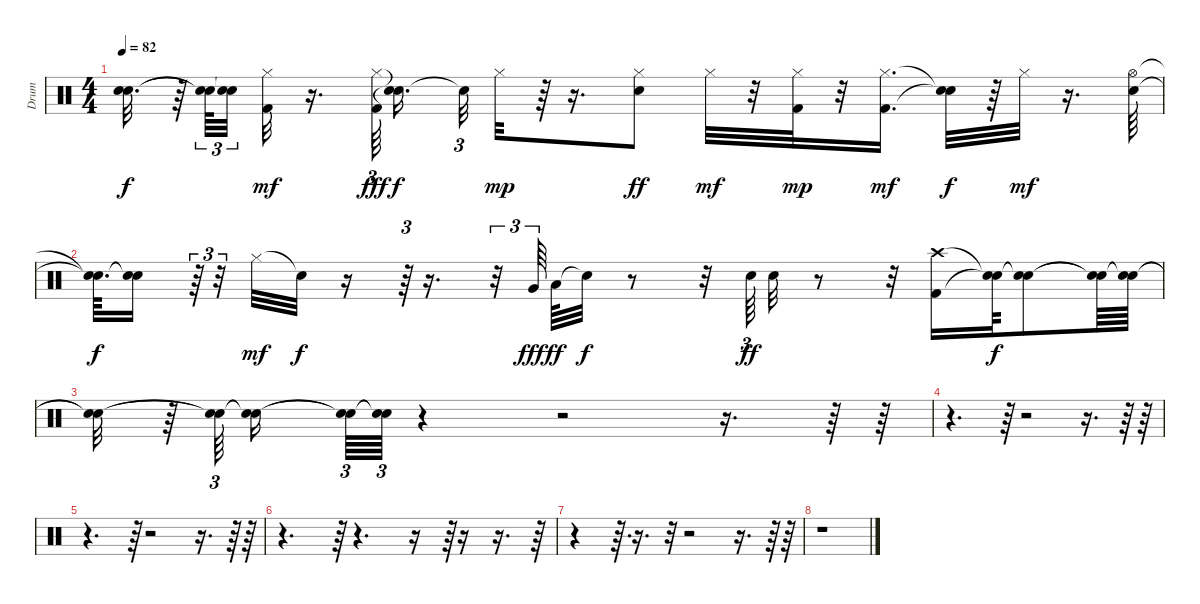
\track ("Drum" "Drum") {instrument percussion}
\staff {score}
\articulation defaults
\ts (4 4)
\tempo 82
\clef neutral
\ks c
("Snare (hit)"{t} "Snare (hit)"{t}).32{d dy f} r.64 ("Snare (hit)"{t} "Snare (hit)"{t}).64{tu (3 2)} ("Snare (hit)"{t} "Snare (hit)"{t}).32{tu (3 2) beam splitsecondary} ("Kick (hit) 2" "Hi-Hat (closed)").32{dy mf} r.16{d} ("Kick (hit) 2" "Hi-Hat (closed)").64{tu (3 2) dy fff} ("Snare (hit)"{t} "Snare (hit)"{t}).16{d dy f} "Snare (hit)"{t}.32{tu (3 2)} "Hi-Hat (closed)".32{dy mp} r.64 r.16{d} ("Electric Snare (hit)" "Hi-Hat (closed)").8{dy ff} "Hi-Hat (closed)".32{dy mf} r.32 ("Kick (hit) 2" "Hi-Hat (closed)").32{dy mp} r.32 ("Kick (hit) 2" "Hi-Hat (closed)").16{d dy mf} ("Snare (hit)"{t} "Snare (hit)"{t}).32{dy f} r.64 "Hi-Hat (closed)".32{dy mf} r.16{d} ("Electric Snare (hit)" "Hi-Hat (open)").64 |
("Snare (hit)"{t} "Snare (hit)"{t}).64{d dy f} ("Snare (hit)"{t} "Snare (hit)"{t}).16 r.64{tu (3 2)} r.32{tu (3 2)} "Hi-Hat (closed)".32{dy mf} "Snare (hit)"{t}.32{dy f} r.16 r.64{tu (3 2)} r.16{d} r.32{tu (3 2)} "Very Low Tom (hit)".64{tu (3 2) dy fff beam splitsecondary} "Low Tom (hit)".64{dy ff} "Snare (hit)"{t}.32{dy f} r.8 r.32 "Snare (hit) 2".64{tu (3 2) dy ff} "Electric Snare (hit)".32 r.8 r.32 ("Kick (hit) 2" "Crash high (hit)").16 ("Snare (hit)"{t} "Snare (hit)"{t}).64{dy f} ("Snare (hit)"{t} "Snare (hit)"{t}).8 ("Snare (hit)"{t} "Snare (hit)"{t}).64 ("Snare (hit)"{t} "Snare (hit)"{t}).64 |
("Snare (hit)"{t} "Snare (hit)"{t}).32 r.64 ("Snare (hit)"{t} "Snare (hit)"{t}).64{tu (3 2) beam splitsecondary} ("Snare (hit)"{t} "Snare (hit)"{t}).16{beam splitsecondary} ("Snare (hit)"{t} "Snare (hit)"{t}).64{tu (3 2)} ("Snare (hit)"{t} "Snare (hit)"{t}).64{tu (3 2)} r.4 r.2 r.16{d} r.64 r.64 |
r.4{d} r.64 r.2 r.16{d} r.64 r.64 |
r.4{d} r.64 r.2 r.16{d} r.64 r.64 |
r.4{d} r.64 r.4{d} r.16 r.64{tu (3 2)} r.16 r.16{d} r.64 |
r.4 r.64{d} r.16{d} r.32{tu (3 2)} r.2 r.16{d} r.64 r.64 |
r.1
